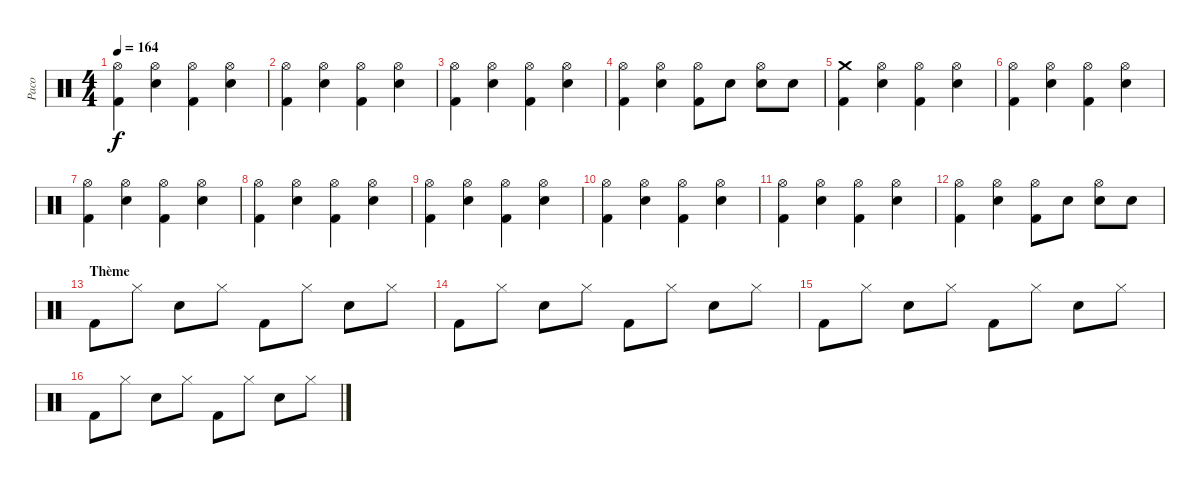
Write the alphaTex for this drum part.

\track ("Paco" "Paco") {instrument percussion}
\staff {score}
\articulation defaults
\ts (4 4)
\tempo 164
\clef neutral
\ks c
("Hi-Hat (open)" "Kick (hit) 2").4{dy f} ("Hi-Hat (open)" "Electric Snare (hit)").4 ("Hi-Hat (open)" "Kick (hit) 2").4 ("Hi-Hat (open)" "Electric Snare (hit)").4 |
("Hi-Hat (open)" "Kick (hit) 2").4 ("Hi-Hat (open)" "Electric Snare (hit)").4 ("Hi-Hat (open)" "Kick (hit) 2").4 ("Hi-Hat (open)" "Electric Snare (hit)").4 |
("Hi-Hat (open)" "Kick (hit) 2").4 ("Hi-Hat (open)" "Electric Snare (hit)").4 ("Hi-Hat (open)" "Kick (hit) 2").4 ("Hi-Hat (open)" "Electric Snare (hit)").4 |
("Hi-Hat (open)" "Kick (hit) 2").4 ("Hi-Hat (open)" "Electric Snare (hit)").4 ("Hi-Hat (open)" "Kick (hit) 2").8 "Electric Snare (hit)".8 ("Hi-Hat (open)" "Electric Snare (hit)").8 "Electric Snare (hit)".8 |
("Crash medium (hit)" "Kick (hit) 2").4 ("Hi-Hat (open)" "Electric Snare (hit)").4 ("Hi-Hat (open)" "Kick (hit) 2").4 ("Hi-Hat (open)" "Electric Snare (hit)").4 |
("Hi-Hat (open)" "Kick (hit) 2").4 ("Hi-Hat (open)" "Electric Snare (hit)").4 ("Hi-Hat (open)" "Kick (hit) 2").4 ("Hi-Hat (open)" "Electric Snare (hit)").4 |
("Hi-Hat (open)" "Kick (hit) 2").4 ("Hi-Hat (open)" "Electric Snare (hit)").4 ("Hi-Hat (open)" "Kick (hit) 2").4 ("Hi-Hat (open)" "Electric Snare (hit)").4 |
("Hi-Hat (open)" "Kick (hit) 2").4 ("Hi-Hat (open)" "Electric Snare (hit)").4 ("Hi-Hat (open)" "Kick (hit) 2").4 ("Hi-Hat (open)" "Electric Snare (hit)").4 |
("Hi-Hat (open)" "Kick (hit) 2").4 ("Hi-Hat (open)" "Electric Snare (hit)").4 ("Hi-Hat (open)" "Kick (hit) 2").4 ("Hi-Hat (open)" "Electric Snare (hit)").4 |
("Hi-Hat (open)" "Kick (hit) 2").4 ("Hi-Hat (open)" "Electric Snare (hit)").4 ("Hi-Hat (open)" "Kick (hit) 2").4 ("Hi-Hat (open)" "Electric Snare (hit)").4 |
("Hi-Hat (open)" "Kick (hit) 2").4 ("Hi-Hat (open)" "Electric Snare (hit)").4 ("Hi-Hat (open)" "Kick (hit) 2").4 ("Hi-Hat (open)" "Electric Snare (hit)").4 |
("Hi-Hat (open)" "Kick (hit) 2").4 ("Hi-Hat (open)" "Electric Snare (hit)").4 ("Hi-Hat (open)" "Kick (hit) 2").8 "Electric Snare (hit)".8 ("Hi-Hat (open)" "Electric Snare (hit)").8 "Electric Snare (hit)".8 |
\section ("" "Thème")
"Kick (hit) 2".8 "Hi-Hat (closed)".8 "Electric Snare (hit)".8 "Hi-Hat (closed)".8 "Kick (hit) 2".8 "Hi-Hat (closed)".8 "Electric Snare (hit)".8 "Hi-Hat (closed)".8 |
"Kick (hit) 2".8 "Hi-Hat (closed)".8 "Electric Snare (hit)".8 "Hi-Hat (closed)".8 "Kick (hit) 2".8 "Hi-Hat (closed)".8 "Electric Snare (hit)".8 "Hi-Hat (closed)".8 |
"Kick (hit) 2".8 "Hi-Hat (closed)".8 "Electric Snare (hit)".8 "Hi-Hat (closed)".8 "Kick (hit) 2".8 "Hi-Hat (closed)".8 "Electric Snare (hit)".8 "Hi-Hat (closed)".8 |
"Kick (hit) 2".8 "Hi-Hat (closed)".8 "Electric Snare (hit)".8 "Hi-Hat (closed)".8 "Kick (hit) 2".8 "Hi-Hat (closed)".8 "Electric Snare (hit)".8 "Hi-Hat (closed)".8
